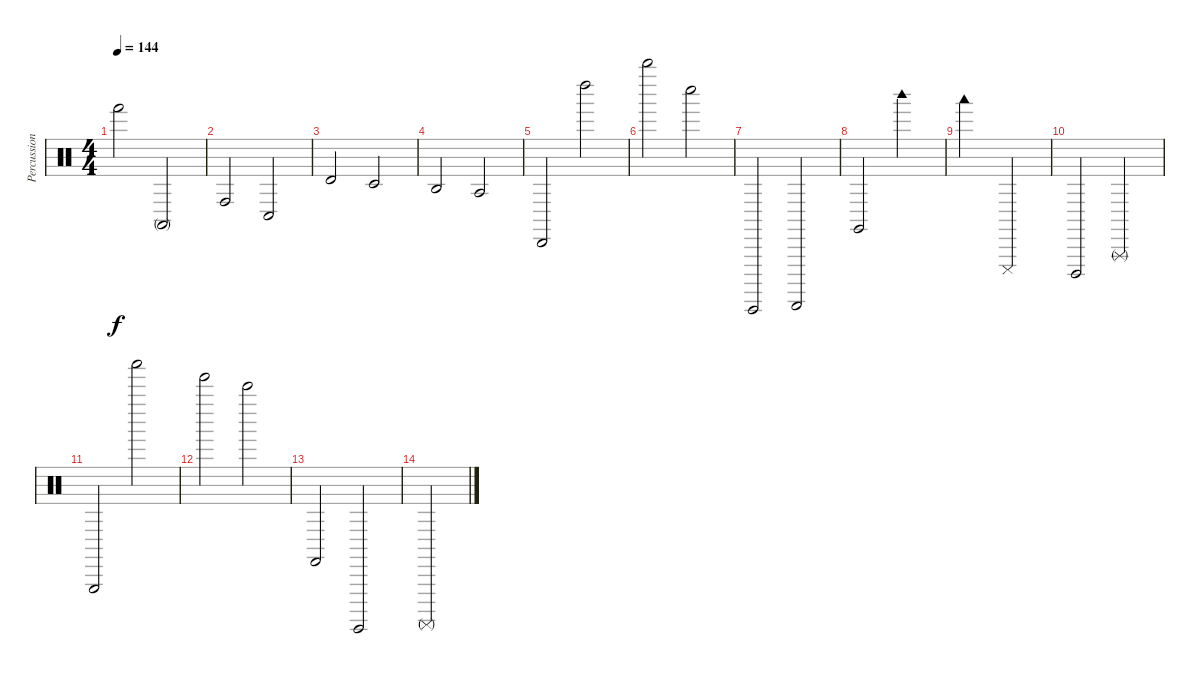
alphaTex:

\track ("Percussions" "Percussion") {instrument percussion}
\staff {score}
\articulation defaults
\ts (4 4)
\tempo 144
\clef neutral
\ks c "Hand (hit)".2{dy f} "Conga high (mute)".2
|
"Conga high (hit)".2 "Conga low (hit)".2 |
"Timbale high (hit)".2 "Timbale low (hit)".2 |
"Agogo high (hit)".2 "Agogo tow (hit)".2 |
"Cabasa (hit)".2 "Left Maraca (hit)".2 |
"Whistle high (hit)".2 "Whistle low (hit)".2 |
"Guiro (hit)".2 "Guiro (scrap-return)".2 |
"Claves (hit)".2 "Woodblock high (hit)".2 |
"Woodblock low (hit)".2 "Cuica (mute)".2 |
"Cuica (open)".2 "Triangle (rnute)".2 |
"Triangle (hit)".2 "Shaker (hit)".2 |
"Tinkle Bell (hit)".2 "Bell Tree (hit)".2 |
"Castanets (hit)".2 "Surdo (hit)".2 |
"Surdo (mute)".2
